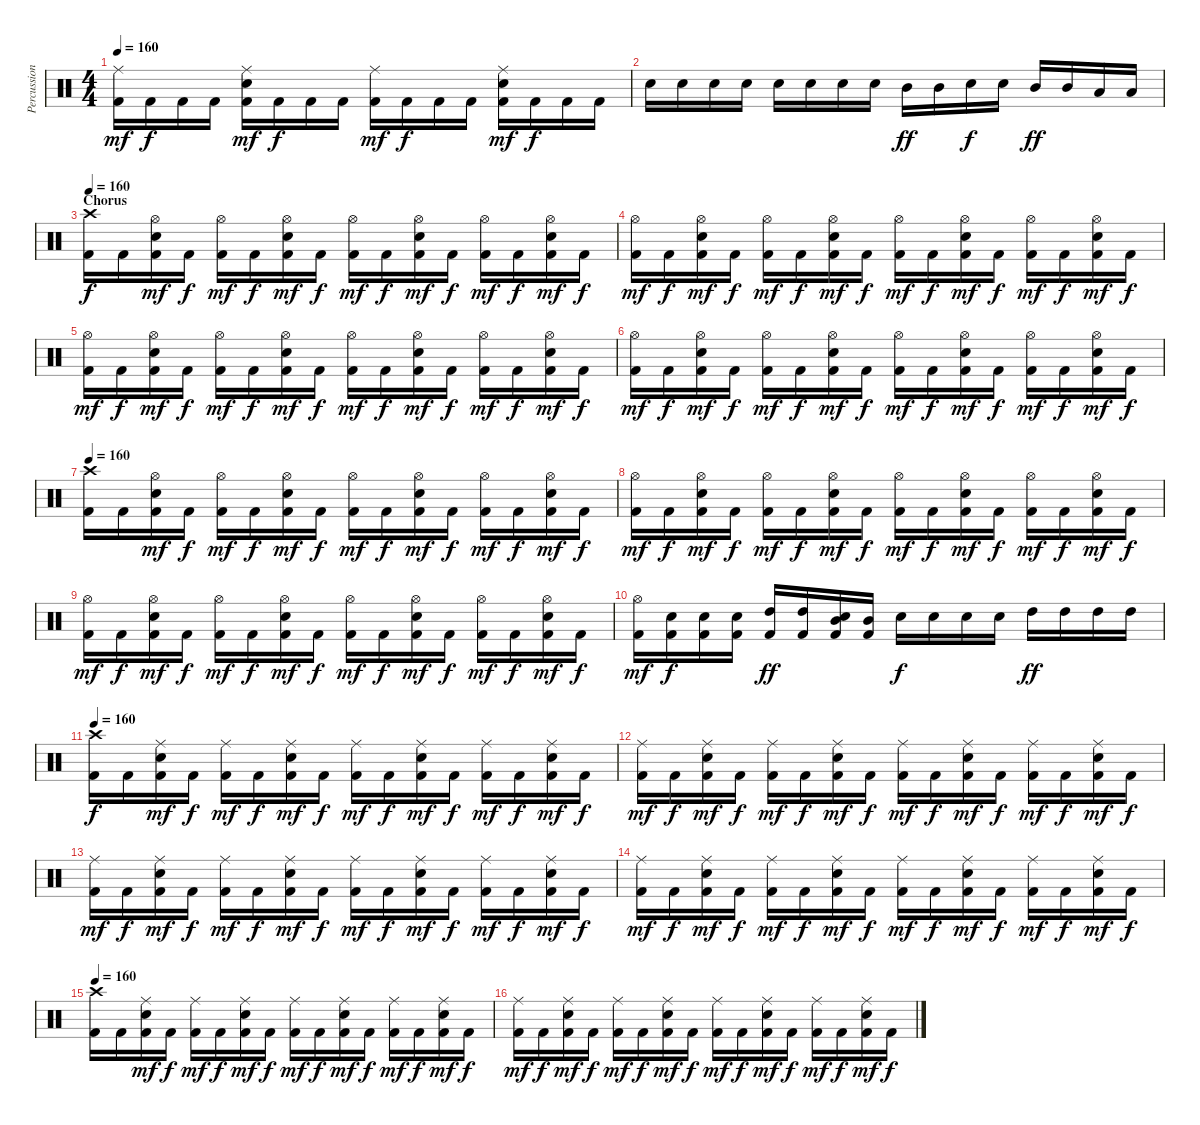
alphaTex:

\track ("Percussion" "Percussion") {instrument percussion}
\staff {score}
\articulation defaults
\ts (4 4)
\tempo 160
\clef neutral
\ks c
("Ride (middle)" "Kick (hit) 2").16{dy mf} "Kick (hit) 2".16{dy f} "Kick (hit) 2".16 "Kick (hit) 2".16 ("Ride (middle)" "Electric Snare (hit)" "Kick (hit) 2").16{dy mf} "Kick (hit) 2".16{dy f} "Kick (hit) 2".16 "Kick (hit) 2".16 ("Ride (middle)" "Kick (hit) 2").16{dy mf} "Kick (hit) 2".16{dy f} "Kick (hit) 2".16 "Kick (hit) 2".16 ("Ride (middle)" "Electric Snare (hit)" "Kick (hit) 2").16{dy mf} "Kick (hit) 2".16{dy f} "Kick (hit) 2".16 "Kick (hit) 2".16 |
"Electric Snare (hit)".16 "Electric Snare (hit)".16 "Electric Snare (hit)".16 "Electric Snare (hit)".16 "Electric Snare (hit)".16 "Electric Snare (hit)".16 "Electric Snare (hit)".16 "Electric Snare (hit)".16 "Mid Tom (hit)".16{dy ff} "Mid Tom (hit)".16 "Electric Snare (hit)".16{dy f} "Electric Snare (hit)".16 "Mid Tom (hit)".16{dy ff} "Mid Tom (hit)".16 "Low Tom (hit)".16 "Low Tom (hit)".16 |
\section ("" "Chorus")
\tempo 160
("Crash high (hit)" "Kick (hit) 2").16{dy f} "Kick (hit) 2".16 ("Hi-Hat (open)" "Electric Snare (hit)" "Kick (hit) 2").16{dy mf} "Kick (hit) 2".16{dy f} ("Hi-Hat (open)" "Kick (hit) 2").16{dy mf} "Kick (hit) 2".16{dy f} ("Hi-Hat (open)" "Electric Snare (hit)" "Kick (hit) 2").16{dy mf} "Kick (hit) 2".16{dy f} ("Hi-Hat (open)" "Kick (hit) 2").16{dy mf} "Kick (hit) 2".16{dy f} ("Hi-Hat (open)" "Electric Snare (hit)" "Kick (hit) 2").16{dy mf} "Kick (hit) 2".16{dy f} ("Hi-Hat (open)" "Kick (hit) 2").16{dy mf} "Kick (hit) 2".16{dy f} ("Hi-Hat (open)" "Electric Snare (hit)" "Kick (hit) 2").16{dy mf} "Kick (hit) 2".16{dy f} |
("Hi-Hat (open)" "Kick (hit) 2").16{dy mf} "Kick (hit) 2".16{dy f} ("Hi-Hat (open)" "Electric Snare (hit)" "Kick (hit) 2").16{dy mf} "Kick (hit) 2".16{dy f} ("Hi-Hat (open)" "Kick (hit) 2").16{dy mf} "Kick (hit) 2".16{dy f} ("Hi-Hat (open)" "Electric Snare (hit)" "Kick (hit) 2").16{dy mf} "Kick (hit) 2".16{dy f} ("Hi-Hat (open)" "Kick (hit) 2").16{dy mf} "Kick (hit) 2".16{dy f} ("Hi-Hat (open)" "Electric Snare (hit)" "Kick (hit) 2").16{dy mf} "Kick (hit) 2".16{dy f} ("Hi-Hat (open)" "Kick (hit) 2").16{dy mf} "Kick (hit) 2".16{dy f} ("Hi-Hat (open)" "Electric Snare (hit)" "Kick (hit) 2").16{dy mf} "Kick (hit) 2".16{dy f} |
("Hi-Hat (open)" "Kick (hit) 2").16{dy mf} "Kick (hit) 2".16{dy f} ("Hi-Hat (open)" "Electric Snare (hit)" "Kick (hit) 2").16{dy mf} "Kick (hit) 2".16{dy f} ("Hi-Hat (open)" "Kick (hit) 2").16{dy mf} "Kick (hit) 2".16{dy f} ("Hi-Hat (open)" "Electric Snare (hit)" "Kick (hit) 2").16{dy mf} "Kick (hit) 2".16{dy f} ("Hi-Hat (open)" "Kick (hit) 2").16{dy mf} "Kick (hit) 2".16{dy f} ("Hi-Hat (open)" "Electric Snare (hit)" "Kick (hit) 2").16{dy mf} "Kick (hit) 2".16{dy f} ("Hi-Hat (open)" "Kick (hit) 2").16{dy mf} "Kick (hit) 2".16{dy f} ("Hi-Hat (open)" "Electric Snare (hit)" "Kick (hit) 2").16{dy mf} "Kick (hit) 2".16{dy f} |
("Hi-Hat (open)" "Kick (hit) 2").16{dy mf} "Kick (hit) 2".16{dy f} ("Hi-Hat (open)" "Electric Snare (hit)" "Kick (hit) 2").16{dy mf} "Kick (hit) 2".16{dy f} ("Hi-Hat (open)" "Kick (hit) 2").16{dy mf} "Kick (hit) 2".16{dy f} ("Hi-Hat (open)" "Electric Snare (hit)" "Kick (hit) 2").16{dy mf} "Kick (hit) 2".16{dy f} ("Hi-Hat (open)" "Kick (hit) 2").16{dy mf} "Kick (hit) 2".16{dy f} ("Hi-Hat (open)" "Electric Snare (hit)" "Kick (hit) 2").16{dy mf} "Kick (hit) 2".16{dy f} ("Hi-Hat (open)" "Kick (hit) 2").16{dy mf} "Kick (hit) 2".16{dy f} ("Hi-Hat (open)" "Electric Snare (hit)" "Kick (hit) 2").16{dy mf} "Kick (hit) 2".16{dy f} |
\tempo 160
("Crash high (hit)" "Kick (hit) 2").16 "Kick (hit) 2".16 ("Hi-Hat (open)" "Electric Snare (hit)" "Kick (hit) 2").16{dy mf} "Kick (hit) 2".16{dy f} ("Hi-Hat (open)" "Kick (hit) 2").16{dy mf} "Kick (hit) 2".16{dy f} ("Hi-Hat (open)" "Electric Snare (hit)" "Kick (hit) 2").16{dy mf} "Kick (hit) 2".16{dy f} ("Hi-Hat (open)" "Kick (hit) 2").16{dy mf} "Kick (hit) 2".16{dy f} ("Hi-Hat (open)" "Electric Snare (hit)" "Kick (hit) 2").16{dy mf} "Kick (hit) 2".16{dy f} ("Hi-Hat (open)" "Kick (hit) 2").16{dy mf} "Kick (hit) 2".16{dy f} ("Hi-Hat (open)" "Electric Snare (hit)" "Kick (hit) 2").16{dy mf} "Kick (hit) 2".16{dy f} |
("Hi-Hat (open)" "Kick (hit) 2").16{dy mf} "Kick (hit) 2".16{dy f} ("Hi-Hat (open)" "Electric Snare (hit)" "Kick (hit) 2").16{dy mf} "Kick (hit) 2".16{dy f} ("Hi-Hat (open)" "Kick (hit) 2").16{dy mf} "Kick (hit) 2".16{dy f} ("Hi-Hat (open)" "Electric Snare (hit)" "Kick (hit) 2").16{dy mf} "Kick (hit) 2".16{dy f} ("Hi-Hat (open)" "Kick (hit) 2").16{dy mf} "Kick (hit) 2".16{dy f} ("Hi-Hat (open)" "Electric Snare (hit)" "Kick (hit) 2").16{dy mf} "Kick (hit) 2".16{dy f} ("Hi-Hat (open)" "Kick (hit) 2").16{dy mf} "Kick (hit) 2".16{dy f} ("Hi-Hat (open)" "Electric Snare (hit)" "Kick (hit) 2").16{dy mf} "Kick (hit) 2".16{dy f} |
("Hi-Hat (open)" "Kick (hit) 2").16{dy mf} "Kick (hit) 2".16{dy f} ("Hi-Hat (open)" "Electric Snare (hit)" "Kick (hit) 2").16{dy mf} "Kick (hit) 2".16{dy f} ("Hi-Hat (open)" "Kick (hit) 2").16{dy mf} "Kick (hit) 2".16{dy f} ("Hi-Hat (open)" "Electric Snare (hit)" "Kick (hit) 2").16{dy mf} "Kick (hit) 2".16{dy f} ("Hi-Hat (open)" "Kick (hit) 2").16{dy mf} "Kick (hit) 2".16{dy f} ("Hi-Hat (open)" "Electric Snare (hit)" "Kick (hit) 2").16{dy mf} "Kick (hit) 2".16{dy f} ("Hi-Hat (open)" "Kick (hit) 2").16{dy mf} "Kick (hit) 2".16{dy f} ("Hi-Hat (open)" "Electric Snare (hit)" "Kick (hit) 2").16{dy mf} "Kick (hit) 2".16{dy f} |
("Hi-Hat (open)" "Kick (hit) 2").16{dy mf} ("Electric Snare (hit)" "Kick (hit) 2").16{dy f} ("Electric Snare (hit)" "Kick (hit) 2").16 ("Electric Snare (hit)" "Kick (hit) 2").16 ("High Tom (hit)" "Kick (hit) 2").16{dy ff} ("High Tom (hit)" "Kick (hit) 2").16 ("Mid Tom (hit)" "Electric Snare (hit)" "Kick (hit) 2").16 ("Mid Tom (hit)" "Kick (hit) 2").16 "Electric Snare (hit)".16{dy f} "Electric Snare (hit)".16 "Electric Snare (hit)".16 "Electric Snare (hit)".16 "High Tom (hit)".16{dy ff} "High Tom (hit)".16 "High Tom (hit)".16 "High Tom (hit)".16 |
\tempo 160
("Crash high (hit)" "Kick (hit) 2").16{dy f} "Kick (hit) 2".16 ("Ride (middle)" "Electric Snare (hit)" "Kick (hit) 2").16{dy mf} "Kick (hit) 2".16{dy f} ("Ride (middle)" "Kick (hit) 2").16{dy mf} "Kick (hit) 2".16{dy f} ("Ride (middle)" "Electric Snare (hit)" "Kick (hit) 2").16{dy mf} "Kick (hit) 2".16{dy f} ("Ride (middle)" "Kick (hit) 2").16{dy mf} "Kick (hit) 2".16{dy f} ("Ride (middle)" "Electric Snare (hit)" "Kick (hit) 2").16{dy mf} "Kick (hit) 2".16{dy f} ("Ride (middle)" "Kick (hit) 2").16{dy mf} "Kick (hit) 2".16{dy f} ("Ride (middle)" "Electric Snare (hit)" "Kick (hit) 2").16{dy mf} "Kick (hit) 2".16{dy f} |
("Ride (middle)" "Kick (hit) 2").16{dy mf} "Kick (hit) 2".16{dy f} ("Ride (middle)" "Electric Snare (hit)" "Kick (hit) 2").16{dy mf} "Kick (hit) 2".16{dy f} ("Ride (middle)" "Kick (hit) 2").16{dy mf} "Kick (hit) 2".16{dy f} ("Ride (middle)" "Electric Snare (hit)" "Kick (hit) 2").16{dy mf} "Kick (hit) 2".16{dy f} ("Ride (middle)" "Kick (hit) 2").16{dy mf} "Kick (hit) 2".16{dy f} ("Ride (middle)" "Electric Snare (hit)" "Kick (hit) 2").16{dy mf} "Kick (hit) 2".16{dy f} ("Ride (middle)" "Kick (hit) 2").16{dy mf} "Kick (hit) 2".16{dy f} ("Ride (middle)" "Electric Snare (hit)" "Kick (hit) 2").16{dy mf} "Kick (hit) 2".16{dy f} |
("Ride (middle)" "Kick (hit) 2").16{dy mf} "Kick (hit) 2".16{dy f} ("Ride (middle)" "Electric Snare (hit)" "Kick (hit) 2").16{dy mf} "Kick (hit) 2".16{dy f} ("Ride (middle)" "Kick (hit) 2").16{dy mf} "Kick (hit) 2".16{dy f} ("Ride (middle)" "Electric Snare (hit)" "Kick (hit) 2").16{dy mf} "Kick (hit) 2".16{dy f} ("Ride (middle)" "Kick (hit) 2").16{dy mf} "Kick (hit) 2".16{dy f} ("Ride (middle)" "Electric Snare (hit)" "Kick (hit) 2").16{dy mf} "Kick (hit) 2".16{dy f} ("Ride (middle)" "Kick (hit) 2").16{dy mf} "Kick (hit) 2".16{dy f} ("Ride (middle)" "Electric Snare (hit)" "Kick (hit) 2").16{dy mf} "Kick (hit) 2".16{dy f} |
("Ride (middle)" "Kick (hit) 2").16{dy mf} "Kick (hit) 2".16{dy f} ("Ride (middle)" "Electric Snare (hit)" "Kick (hit) 2").16{dy mf} "Kick (hit) 2".16{dy f} ("Ride (middle)" "Kick (hit) 2").16{dy mf} "Kick (hit) 2".16{dy f} ("Ride (middle)" "Electric Snare (hit)" "Kick (hit) 2").16{dy mf} "Kick (hit) 2".16{dy f} ("Ride (middle)" "Kick (hit) 2").16{dy mf} "Kick (hit) 2".16{dy f} ("Ride (middle)" "Electric Snare (hit)" "Kick (hit) 2").16{dy mf} "Kick (hit) 2".16{dy f} ("Ride (middle)" "Kick (hit) 2").16{dy mf} "Kick (hit) 2".16{dy f} ("Ride (middle)" "Electric Snare (hit)" "Kick (hit) 2").16{dy mf} "Kick (hit) 2".16{dy f} |
\tempo 160
("Crash high (hit)" "Kick (hit) 2").16 "Kick (hit) 2".16 ("Ride (middle)" "Electric Snare (hit)" "Kick (hit) 2").16{dy mf} "Kick (hit) 2".16{dy f} ("Ride (middle)" "Kick (hit) 2").16{dy mf} "Kick (hit) 2".16{dy f} ("Ride (middle)" "Electric Snare (hit)" "Kick (hit) 2").16{dy mf} "Kick (hit) 2".16{dy f} ("Ride (middle)" "Kick (hit) 2").16{dy mf} "Kick (hit) 2".16{dy f} ("Ride (middle)" "Electric Snare (hit)" "Kick (hit) 2").16{dy mf} "Kick (hit) 2".16{dy f} ("Ride (middle)" "Kick (hit) 2").16{dy mf} "Kick (hit) 2".16{dy f} ("Ride (middle)" "Electric Snare (hit)" "Kick (hit) 2").16{dy mf} "Kick (hit) 2".16{dy f} |
("Ride (middle)" "Kick (hit) 2").16{dy mf} "Kick (hit) 2".16{dy f} ("Ride (middle)" "Electric Snare (hit)" "Kick (hit) 2").16{dy mf} "Kick (hit) 2".16{dy f} ("Ride (middle)" "Kick (hit) 2").16{dy mf} "Kick (hit) 2".16{dy f} ("Ride (middle)" "Electric Snare (hit)" "Kick (hit) 2").16{dy mf} "Kick (hit) 2".16{dy f} ("Ride (middle)" "Kick (hit) 2").16{dy mf} "Kick (hit) 2".16{dy f} ("Ride (middle)" "Electric Snare (hit)" "Kick (hit) 2").16{dy mf} "Kick (hit) 2".16{dy f} ("Ride (middle)" "Kick (hit) 2").16{dy mf} "Kick (hit) 2".16{dy f} ("Ride (middle)" "Electric Snare (hit)" "Kick (hit) 2").16{dy mf} "Kick (hit) 2".16{dy f}
